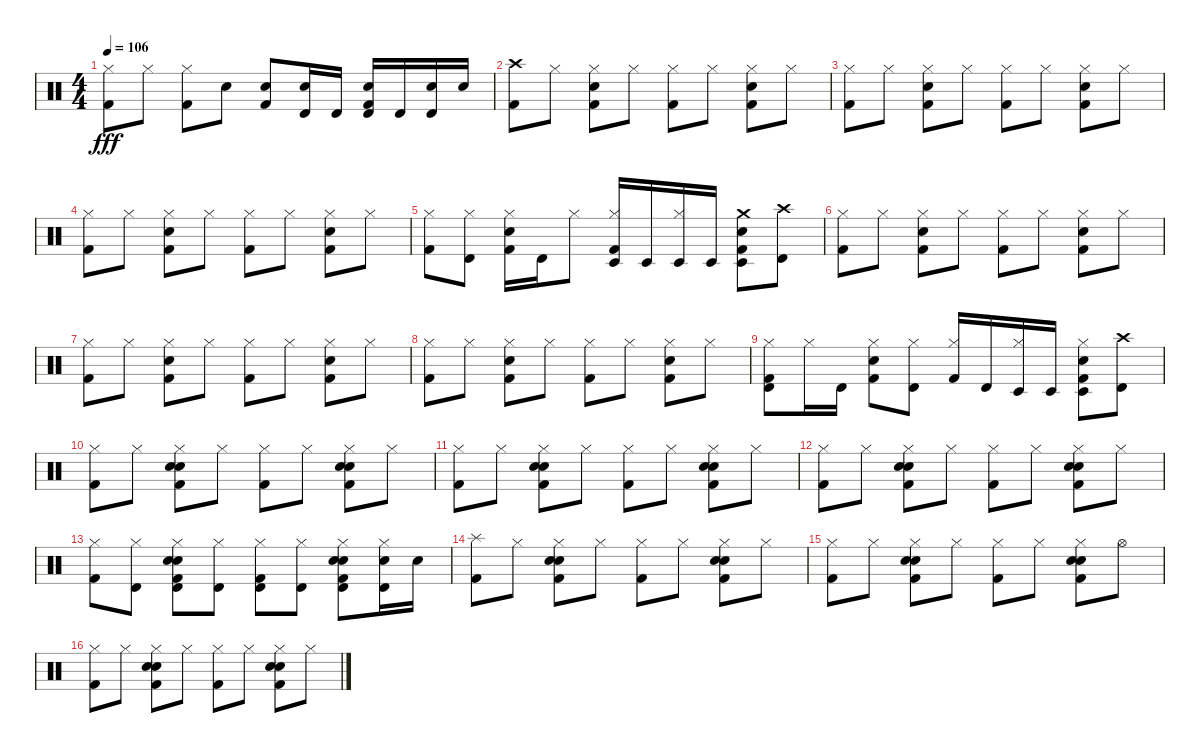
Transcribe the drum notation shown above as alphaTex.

\track "" {instrument percussion}
\staff {score}
\articulation defaults
\ts (4 4)
\tempo 106
\clef neutral
\ks c
("Kick (hit) 2" "Hi-Hat (closed)").8{dy fff} "Hi-Hat (closed)".8 ("Hi-Hat (closed)" "Kick (hit) 2").8 "Snare (hit) 2".8 ("Kick (hit) 2" "Snare (hit) 2").8 ("Snare (hit) 2" "Timbale high (hit)").16 "Timbale high (hit)".16 ("Timbale high (hit)" "Kick (hit) 2" "Snare (hit) 2").16 "Timbale high (hit)".16 ("Timbale high (hit)" "Snare (hit) 2").16 "Snare (hit) 2".16 |
("Kick (hit) 2" "Crash high (hit)").8 "Hi-Hat (closed)".8 ("Kick (hit) 2" "Snare (hit) 2" "Hi-Hat (closed)").8 "Hi-Hat (closed)".8 ("Kick (hit) 2" "Hi-Hat (closed)").8 "Hi-Hat (closed)".8 ("Kick (hit) 2" "Snare (hit) 2" "Hi-Hat (closed)").8 "Hi-Hat (closed)".8 |
("Kick (hit) 2" "Hi-Hat (closed)").8 "Hi-Hat (closed)".8 ("Hi-Hat (closed)" "Kick (hit) 2" "Snare (hit) 2").8 "Hi-Hat (closed)".8 ("Kick (hit) 2" "Hi-Hat (closed)").8 "Hi-Hat (closed)".8 ("Hi-Hat (closed)" "Kick (hit) 2" "Snare (hit) 2").8 "Hi-Hat (closed)".8 |
("Kick (hit) 2" "Hi-Hat (closed)").8 "Hi-Hat (closed)".8 ("Kick (hit) 2" "Snare (hit) 2" "Hi-Hat (closed)").8 "Hi-Hat (closed)".8 ("Kick (hit) 2" "Hi-Hat (closed)").8 "Hi-Hat (closed)".8 ("Kick (hit) 2" "Snare (hit) 2" "Hi-Hat (closed)").8 "Hi-Hat (closed)".8 |
("Hi-Hat (closed)" "Kick (hit) 2").8 ("Hi-Hat (closed)" "Timbale high (hit)").8 ("Hi-Hat (closed)" "Kick (hit) 2" "Snare (hit) 2").16 "Timbale high (hit)".16 "Hi-Hat (closed)".8 ("Kick (hit) 2" "Hi-Hat (closed)" "Timbale low (hit)").16 "Timbale low (hit)".16 ("Hi-Hat (closed)" "Timbale low (hit)").16 "Timbale low (hit)".16 ("Kick (hit) 2" "Snare (hit) 2" "Timbale low (hit)" "Crash medium (hit)").8 ("Crash high (hit)" "Timbale high (hit)").8 |
("Kick (hit) 2" "Hi-Hat (closed)").8 "Hi-Hat (closed)".8 ("Kick (hit) 2" "Snare (hit) 2" "Hi-Hat (closed)").8 "Hi-Hat (closed)".8 ("Kick (hit) 2" "Hi-Hat (closed)").8 "Hi-Hat (closed)".8 ("Kick (hit) 2" "Snare (hit) 2" "Hi-Hat (closed)").8 "Hi-Hat (closed)".8 |
("Hi-Hat (closed)" "Kick (hit) 2").8 "Hi-Hat (closed)".8 ("Hi-Hat (closed)" "Kick (hit) 2" "Snare (hit) 2").8 "Hi-Hat (closed)".8 ("Kick (hit) 2" "Hi-Hat (closed)").8 "Hi-Hat (closed)".8 ("Hi-Hat (closed)" "Kick (hit) 2" "Snare (hit) 2").8 "Hi-Hat (closed)".8 |
("Kick (hit) 2" "Hi-Hat (closed)").8 "Hi-Hat (closed)".8 ("Kick (hit) 2" "Snare (hit) 2" "Hi-Hat (closed)").8 "Hi-Hat (closed)".8 ("Kick (hit) 2" "Hi-Hat (closed)").8 "Hi-Hat (closed)".8 ("Kick (hit) 2" "Snare (hit) 2" "Hi-Hat (closed)").8 "Hi-Hat (closed)".8 |
("Hi-Hat (closed)" "Kick (hit) 2" "Timbale high (hit)").8 "Hi-Hat (closed)".16 "Timbale high (hit)".16 ("Hi-Hat (closed)" "Kick (hit) 2" "Snare (hit) 2").8 ("Timbale high (hit)" "Hi-Hat (closed)").8 ("Kick (hit) 2" "Hi-Hat (closed)").16 "Timbale high (hit)".16 ("Hi-Hat (closed)" "Timbale low (hit)").16 "Timbale low (hit)".16 ("Hi-Hat (closed)" "Kick (hit) 2" "Snare (hit) 2" "Timbale low (hit)").8 ("Crash high (hit)" "Timbale high (hit)").8 |
("Kick (hit) 2" "Hi-Hat (closed)").8 "Hi-Hat (closed)".8 ("Kick (hit) 2" "Snare (hit) 2" "Hand Clap (hit)" "Hi-Hat (closed)").8 "Hi-Hat (closed)".8 ("Kick (hit) 2" "Hi-Hat (closed)").8 "Hi-Hat (closed)".8 ("Kick (hit) 2" "Snare (hit) 2" "Hi-Hat (closed)" "Hand Clap (hit)").8 "Hi-Hat (closed)".8 |
("Hi-Hat (closed)" "Kick (hit) 2").8 "Hi-Hat (closed)".8 ("Hi-Hat (closed)" "Kick (hit) 2" "Snare (hit) 2" "Hand Clap (hit)").8 "Hi-Hat (closed)".8 ("Kick (hit) 2" "Hi-Hat (closed)").8 "Hi-Hat (closed)".8 ("Hi-Hat (closed)" "Kick (hit) 2" "Snare (hit) 2" "Hand Clap (hit)").8 "Hi-Hat (closed)".8 |
("Kick (hit) 2" "Hi-Hat (closed)").8 "Hi-Hat (closed)".8 ("Kick (hit) 2" "Snare (hit) 2" "Hand Clap (hit)" "Hi-Hat (closed)").8 "Hi-Hat (closed)".8 ("Kick (hit) 2" "Hi-Hat (closed)").8 "Hi-Hat (closed)".8 ("Hand Clap (hit)" "Kick (hit) 2" "Snare (hit) 2" "Hi-Hat (closed)").8 "Hi-Hat (closed)".8 |
("Hi-Hat (closed)" "Kick (hit) 2").8 ("Timbale high (hit)" "Hi-Hat (closed)").8 ("Hi-Hat (closed)" "Kick (hit) 2" "Snare (hit) 2" "Timbale high (hit)" "Hand Clap (hit)").8 ("Hi-Hat (closed)" "Timbale high (hit)").8 ("Kick (hit) 2" "Hi-Hat (closed)" "Timbale high (hit)").8 ("Hi-Hat (closed)" "Timbale high (hit)").8 ("Hi-Hat (closed)" "Kick (hit) 2" "Snare (hit) 2" "Timbale high (hit)" "Hand Clap (hit)").8 ("Snare (hit) 2" "Hi-Hat (closed)" "Timbale high (hit)").16 "Snare (hit) 2".16 |
("Kick (hit) 2" "Splash (hit)").8 "Hi-Hat (closed)".8 ("Kick (hit) 2" "Snare (hit) 2" "Hi-Hat (closed)" "Hand Clap (hit)").8 "Hi-Hat (closed)".8 ("Kick (hit) 2" "Hi-Hat (closed)").8 "Hi-Hat (closed)".8 ("Kick (hit) 2" "Snare (hit) 2" "Hi-Hat (closed)" "Hand Clap (hit)").8 "Hi-Hat (closed)".8 |
("Hi-Hat (closed)" "Kick (hit) 2").8 "Hi-Hat (closed)".8 ("Hi-Hat (closed)" "Kick (hit) 2" "Snare (hit) 2" "Hand Clap (hit)").8 "Hi-Hat (closed)".8 ("Kick (hit) 2" "Hi-Hat (closed)").8 "Hi-Hat (closed)".8 ("Hi-Hat (closed)" "Kick (hit) 2" "Snare (hit) 2" "Hand Clap (hit)").8 "Hi-Hat (open)".8 |
("Kick (hit) 2" "Hi-Hat (closed)").8 "Hi-Hat (closed)".8 ("Kick (hit) 2" "Snare (hit) 2" "Hi-Hat (closed)" "Hand Clap (hit)").8 "Hi-Hat (closed)".8 ("Kick (hit) 2" "Hi-Hat (closed)").8 "Hi-Hat (closed)".8 ("Hand Clap (hit)" "Kick (hit) 2" "Snare (hit) 2" "Hi-Hat (closed)").8 "Hi-Hat (closed)".8
